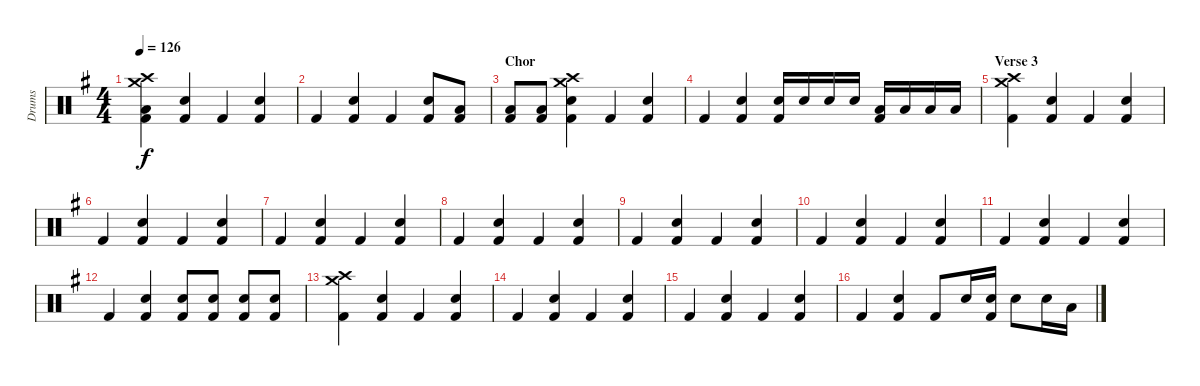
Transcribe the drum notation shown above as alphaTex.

\track ("Drums" "Drums") {instrument percussion}
\staff {score}
\articulation defaults
\ts (4 4)
\tempo 126
\clef neutral
\ks g
("Crash medium (hit)" "Crash high (hit)" "Low Floor Tom (hit)" "Kick (hit) 2").4{dy f} ("Snare (hit) 2" "Kick (hit) 2").4 "Kick (hit) 2".4 ("Snare (hit) 2" "Kick (hit) 2").4 |
"Kick (hit) 2".4 ("Snare (hit) 2" "Kick (hit) 2").4 "Kick (hit) 2".4 ("Snare (hit) 2" "Kick (hit) 2").8 ("Low Floor Tom (hit)" "Kick (hit) 2").8 |
\section ("" "Chor")
("Low Floor Tom (hit)" "Kick (hit) 2").8 ("Low Floor Tom (hit)" "Kick (hit) 2").8 ("Crash medium (hit)" "Crash high (hit)" "Snare (hit) 2" "Kick (hit) 2").4 "Kick (hit) 2".4 ("Snare (hit) 2" "Kick (hit) 2").4 |
"Kick (hit) 2".4 ("Snare (hit) 2" "Kick (hit) 2").4 ("Snare (hit) 2" "Kick (hit) 2").16 "Snare (hit) 2".16 "Snare (hit) 2".16 "Snare (hit) 2".16 ("Low Floor Tom (hit)" "Kick (hit) 2").16 "Low Floor Tom (hit)".16 "Low Floor Tom (hit)".16 "Low Floor Tom (hit)".16 |
\section ("" "Verse 3")
("Crash medium (hit)" "Crash high (hit)" "Kick (hit) 2").4 ("Snare (hit) 2" "Kick (hit) 2").4 "Kick (hit) 2".4 ("Snare (hit) 2" "Kick (hit) 2").4 |
"Kick (hit) 2".4 ("Snare (hit) 2" "Kick (hit) 2").4 "Kick (hit) 2".4 ("Snare (hit) 2" "Kick (hit) 2").4 |
"Kick (hit) 2".4 ("Snare (hit) 2" "Kick (hit) 2").4 "Kick (hit) 2".4 ("Snare (hit) 2" "Kick (hit) 2").4 |
"Kick (hit) 2".4 ("Snare (hit) 2" "Kick (hit) 2").4 "Kick (hit) 2".4 ("Snare (hit) 2" "Kick (hit) 2").4 |
"Kick (hit) 2".4 ("Snare (hit) 2" "Kick (hit) 2").4 "Kick (hit) 2".4 ("Snare (hit) 2" "Kick (hit) 2").4 |
"Kick (hit) 2".4 ("Snare (hit) 2" "Kick (hit) 2").4 "Kick (hit) 2".4 ("Snare (hit) 2" "Kick (hit) 2").4 |
"Kick (hit) 2".4 ("Snare (hit) 2" "Kick (hit) 2").4 "Kick (hit) 2".4 ("Snare (hit) 2" "Kick (hit) 2").4 |
"Kick (hit) 2".4 ("Snare (hit) 2" "Kick (hit) 2").4 ("Snare (hit) 2" "Kick (hit) 2").8 ("Snare (hit) 2" "Kick (hit) 2").8 ("Snare (hit) 2" "Kick (hit) 2").8 ("Snare (hit) 2" "Kick (hit) 2").8 |
("Crash medium (hit)" "Crash high (hit)" "Kick (hit) 2").4 ("Snare (hit) 2" "Kick (hit) 2").4 "Kick (hit) 2".4 ("Snare (hit) 2" "Kick (hit) 2").4 |
"Kick (hit) 2".4 ("Snare (hit) 2" "Kick (hit) 2").4 "Kick (hit) 2".4 ("Snare (hit) 2" "Kick (hit) 2").4 |
"Kick (hit) 2".4 ("Snare (hit) 2" "Kick (hit) 2").4 "Kick (hit) 2".4 ("Snare (hit) 2" "Kick (hit) 2").4 |
"Kick (hit) 2".4 ("Snare (hit) 2" "Kick (hit) 2").4 "Kick (hit) 2".8 "Snare (hit) 2".16 ("Snare (hit) 2" "Kick (hit) 2").16 "Snare (hit) 2".8 "Snare (hit) 2".16 "Low Floor Tom (hit)".16
